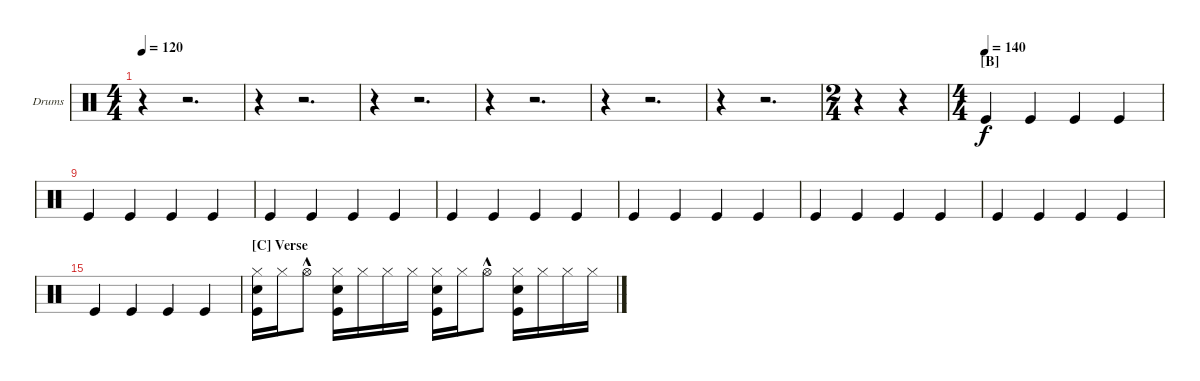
\bracketExtendMode nobrackets
\firstSystemTrackNameOrientation horizontal
\otherSystemsTrackNameOrientation horizontal
\defaultBarNumberDisplay FirstOfSystem
\track ("Drumkit" "Drums") {instrument percussion}
\staff {score}
\articulation defaults
\ts (4 4)
\scale
0.21875
\tempo 120
\accidentals auto
\clef neutral
\ottava regular
\simile none
\ks c
r.4{dy f} r.2{d} |
\scale
0.318519 r.4 r.2{d} |
\scale
0.248889 r.4 r.2{d} |
\scale
0.248889 r.4 r.2{d} |
\scale
0.183704 r.4 r.2{d} |
r.4 r.2{d} |
\ts (2 4)
r.4 r.4 |
\ts (4 4)
\section ("B" "")
\tempo (140)
"Kick (hit)".4 "Kick (hit)".4 "Kick (hit)".4 "Kick (hit)".4 |
"Kick (hit)".4 "Kick (hit)".4 "Kick (hit)".4 "Kick (hit)".4 |
"Kick (hit)".4 "Kick (hit)".4 "Kick (hit)".4 "Kick (hit)".4 |
"Kick (hit)".4 "Kick (hit)".4 "Kick (hit)".4 "Kick (hit)".4 |
"Kick (hit)".4 "Kick (hit)".4 "Kick (hit)".4 "Kick (hit)".4 |
"Kick (hit)".4 "Kick (hit)".4 "Kick (hit)".4 "Kick (hit)".4 |
"Kick (hit)".4 "Kick (hit)".4 "Kick (hit)".4 "Kick (hit)".4 |
"Kick (hit)".4 "Kick (hit)".4 "Kick (hit)".4 "Kick (hit)".4 |
\section ("C" "Verse")
("Hi-Hat (closed)" "Kick (hit)" "Snare (hit) 2").16 "Hi-Hat (closed)".16 "Hi-Hat (open)"{hac}.8 ("Hi-Hat (closed)" "Kick (hit)" "Snare (hit) 2").16 "Hi-Hat (closed)".16 "Hi-Hat (closed)".16 "Hi-Hat (closed)".16 ("Hi-Hat (closed)" "Kick (hit)" "Snare (hit) 2").16 "Hi-Hat (closed)".16 "Hi-Hat (open)"{hac}.8 ("Hi-Hat (closed)" "Kick (hit)" "Snare (hit) 2").16 "Hi-Hat (closed)".16 "Hi-Hat (closed)".16 "Hi-Hat (closed)".16
